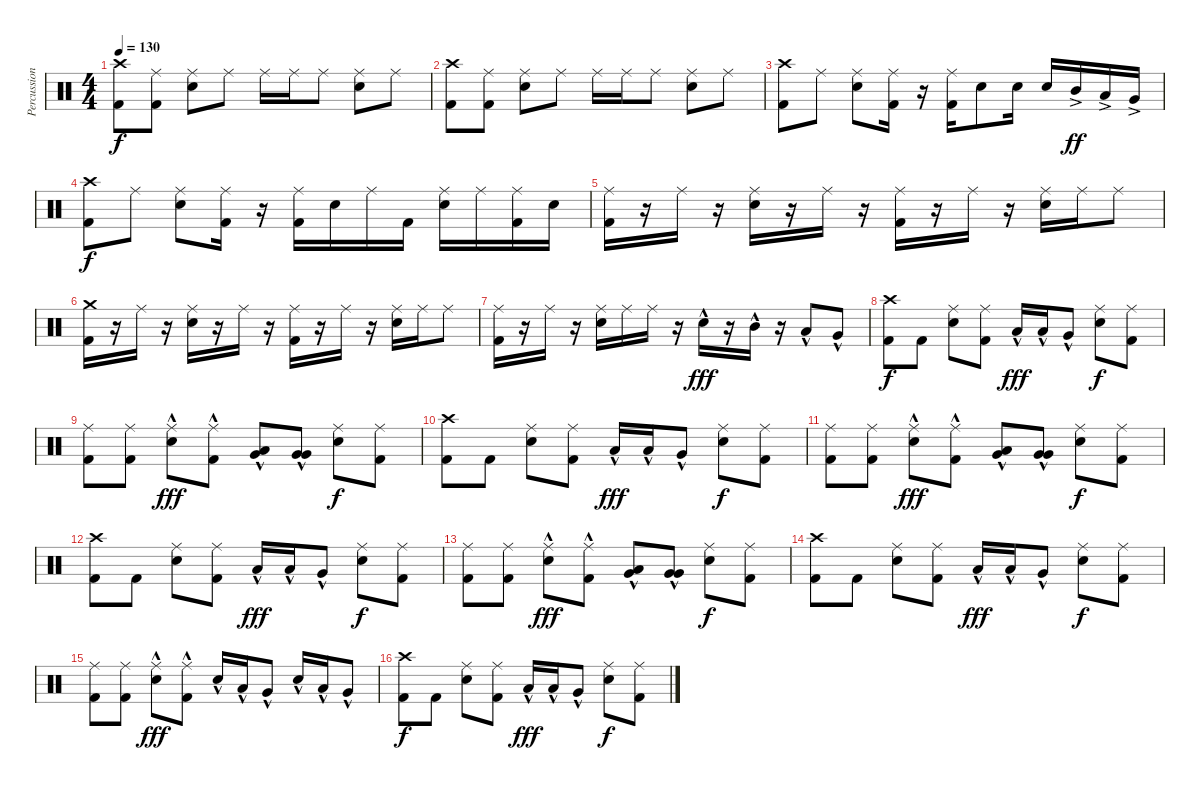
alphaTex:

\track ("Percussion" "Percussion") {instrument percussion}
\staff {score}
\articulation defaults
\ts (4 4)
\tempo 130
\clef neutral
\ks c
("Kick (hit) 2" "Crash high (hit)").8{dy f} ("Kick (hit) 2" "Ride (middle)").8 ("Electric Snare (hit)" "Ride (middle)").8 "Ride (middle)".8 "Ride (middle)".16 "Ride (middle)".16 "Ride (middle)".8 ("Electric Snare (hit)" "Ride (middle)").8 "Ride (middle)".8 |
("Kick (hit) 2" "Crash high (hit)").8 ("Kick (hit) 2" "Ride (middle)").8 ("Electric Snare (hit)" "Ride (middle)").8 "Ride (middle)".8 "Ride (middle)".16 "Ride (middle)".16 "Ride (middle)".8 ("Electric Snare (hit)" "Ride (middle)").8 "Ride (middle)".8 |
("Kick (hit) 2" "Crash high (hit)").8 "Ride (middle)".8 ("Electric Snare (hit)" "Ride (middle)").8 ("Kick (hit) 2" "Ride (middle)").16 r.16 ("Kick (hit) 2" "Ride (middle)").16 "Electric Snare (hit)".8 "Snare (hit) 2".16 "Snare (hit) 2".16 "Mid Tom (hit)"{ac}.16{dy ff} "Low Tom (hit)"{ac}.16 "Very Low Tom (hit)"{ac}.16 |
("Kick (hit) 2" "Crash high (hit)").8{dy f} "Ride (middle)".8 ("Snare (hit) 2" "Ride (middle)").8 ("Kick (hit) 2" "Ride (middle)").16 r.16 ("Kick (hit) 2" "Ride (middle)").16 "Snare (hit) 2".16 "Ride (middle)".16 "Kick (hit) 2".16 ("Snare (hit) 2" "Ride (middle)").16 "Ride (middle)".16 ("Kick (hit) 2" "Ride (middle)").16 "Snare (hit) 2".16 |
("Kick (hit) 2" "Ride (middle)").16 r.16 "Ride (middle)".16 r.16 ("Snare (hit) 2" "Ride (middle)").16 r.16 "Ride (middle)".16 r.16 ("Kick (hit) 2" "Ride (middle)").16 r.16 "Ride (middle)".16 r.16 ("Snare (hit) 2" "Ride (middle)").16 "Ride (middle)".16 "Ride (middle)".8 |
("Kick (hit) 2" "Crash medium (hit)").16 r.16 "Ride (middle)".16 r.16 ("Snare (hit) 2" "Ride (middle)").16 r.16 "Ride (middle)".16 r.16 ("Kick (hit) 2" "Ride (middle)").16 r.16 "Ride (middle)".16 r.16 ("Snare (hit) 2" "Ride (middle)").16 "Ride (middle)".16 "Ride (middle)".8 |
("Kick (hit) 2" "Ride (middle)").16 r.16 "Ride (middle)".16 r.16 ("Snare (hit) 2" "Ride (middle)").16 "Ride (middle)".16 "Ride (middle)".16 r.16 "Snare (hit) 2"{hac}.16{dy fff} r.16 "Mid Tom (hit)"{hac}.16 r.16 "Low Tom (hit)"{hac}.8 "Very Low Tom (hit)"{hac}.8 |
("Crash high (hit)" "Kick (hit) 2").8{dy f} "Kick (hit) 2".8 ("Ride (middle)" "Snare (hit) 2").8 ("Ride (middle)" "Kick (hit) 2").8 "Low Tom (hit)"{hac}.16{dy fff} "Low Tom (hit)"{hac}.16 "Very Low Tom (hit)"{hac}.8 ("Ride (middle)" "Snare (hit) 2").8{dy f} ("Ride (middle)" "Kick (hit) 2").8 |
("Ride (middle)" "Kick (hit) 2").8 ("Ride (middle)" "Kick (hit) 2").8 ("Ride (middle)" "Snare (hit) 2"{hac}).8{dy fff} ("Ride (middle)" "Kick (hit) 2"{hac}).8 ("Very Low Tom (hit)" "Low Tom (hit)"{hac}).8 ("Very Low Tom (hit)" "Very Low Tom (hit)"{hac}).8 ("Ride (middle)" "Snare (hit) 2").8{dy f} ("Ride (middle)" "Kick (hit) 2").8 |
("Crash high (hit)" "Kick (hit) 2").8 "Kick (hit) 2".8 ("Ride (middle)" "Snare (hit) 2").8 ("Ride (middle)" "Kick (hit) 2").8 "Low Tom (hit)"{hac}.16{dy fff} "Low Tom (hit)"{hac}.16 "Very Low Tom (hit)"{hac}.8 ("Ride (middle)" "Snare (hit) 2").8{dy f} ("Ride (middle)" "Kick (hit) 2").8 |
("Ride (middle)" "Kick (hit) 2").8 ("Ride (middle)" "Kick (hit) 2").8 ("Ride (middle)" "Snare (hit) 2"{hac}).8{dy fff} ("Ride (middle)" "Kick (hit) 2"{hac}).8 ("Very Low Tom (hit)" "Low Tom (hit)"{hac}).8 ("Very Low Tom (hit)" "Very Low Tom (hit)"{hac}).8 ("Ride (middle)" "Snare (hit) 2").8{dy f} ("Ride (middle)" "Kick (hit) 2").8 |
("Crash high (hit)" "Kick (hit) 2").8 "Kick (hit) 2".8 ("Ride (middle)" "Snare (hit) 2").8 ("Ride (middle)" "Kick (hit) 2").8 "Low Tom (hit)"{hac}.16{dy fff} "Low Tom (hit)"{hac}.16 "Very Low Tom (hit)"{hac}.8 ("Ride (middle)" "Snare (hit) 2").8{dy f} ("Ride (middle)" "Kick (hit) 2").8 |
("Ride (middle)" "Kick (hit) 2").8 ("Ride (middle)" "Kick (hit) 2").8 ("Ride (middle)" "Snare (hit) 2"{hac}).8{dy fff} ("Ride (middle)" "Kick (hit) 2"{hac}).8 ("Very Low Tom (hit)" "Low Tom (hit)"{hac}).8 ("Very Low Tom (hit)" "Very Low Tom (hit)"{hac}).8 ("Ride (middle)" "Snare (hit) 2").8{dy f} ("Ride (middle)" "Kick (hit) 2").8 |
("Crash high (hit)" "Kick (hit) 2").8 "Kick (hit) 2".8 ("Ride (middle)" "Snare (hit) 2").8 ("Ride (middle)" "Kick (hit) 2").8 "Low Tom (hit)"{hac}.16{dy fff} "Low Tom (hit)"{hac}.16 "Very Low Tom (hit)"{hac}.8 ("Ride (middle)" "Snare (hit) 2").8{dy f} ("Ride (middle)" "Kick (hit) 2").8 |
("Ride (middle)" "Kick (hit) 2").8 ("Ride (middle)" "Kick (hit) 2").8 ("Ride (middle)" "Snare (hit) 2"{hac}).8{dy fff} ("Ride (middle)" "Kick (hit) 2"{hac}).8 "Snare (hit) 2"{hac}.16 "Low Tom (hit)"{hac}.16 "Very Low Tom (hit)"{hac}.8 "Snare (hit) 2"{hac}.16 "Low Tom (hit)"{hac}.16 "Very Low Tom (hit)"{hac}.8 |
("Crash high (hit)" "Kick (hit) 2").8{dy f} "Kick (hit) 2".8 ("Ride (middle)" "Snare (hit) 2").8 ("Ride (middle)" "Kick (hit) 2").8 "Low Tom (hit)"{hac}.16{dy fff} "Low Tom (hit)"{hac}.16 "Very Low Tom (hit)"{hac}.8 ("Ride (middle)" "Snare (hit) 2").8{dy f} ("Ride (middle)" "Kick (hit) 2").8
